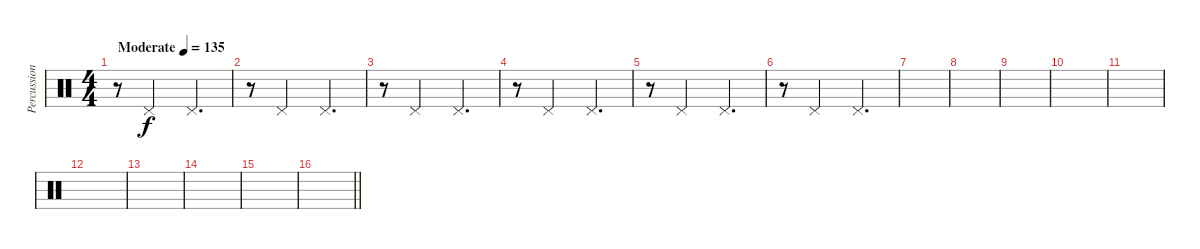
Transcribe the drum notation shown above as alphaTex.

\track ("Percussion" "Percussion") {instrument percussion}
\staff {score}
\articulation defaults
\ts (4 4)
\tempo (135 "Moderate")
\clef neutral
\ks c
r.8{dy f} "Pedal Hi-Hat (hit)".2 "Pedal Hi-Hat (hit)".4{d} |
r.8 "Pedal Hi-Hat (hit)".2 "Pedal Hi-Hat (hit)".4{d} |
r.8 "Pedal Hi-Hat (hit)".2 "Pedal Hi-Hat (hit)".4{d} |
r.8 "Pedal Hi-Hat (hit)".2 "Pedal Hi-Hat (hit)".4{d} |
r.8 "Pedal Hi-Hat (hit)".2 "Pedal Hi-Hat (hit)".4{d} |
r.8 "Pedal Hi-Hat (hit)".2 "Pedal Hi-Hat (hit)".4{d} |
|
|
|
|
|
|
|
|
|
\barLineRight lightlight
